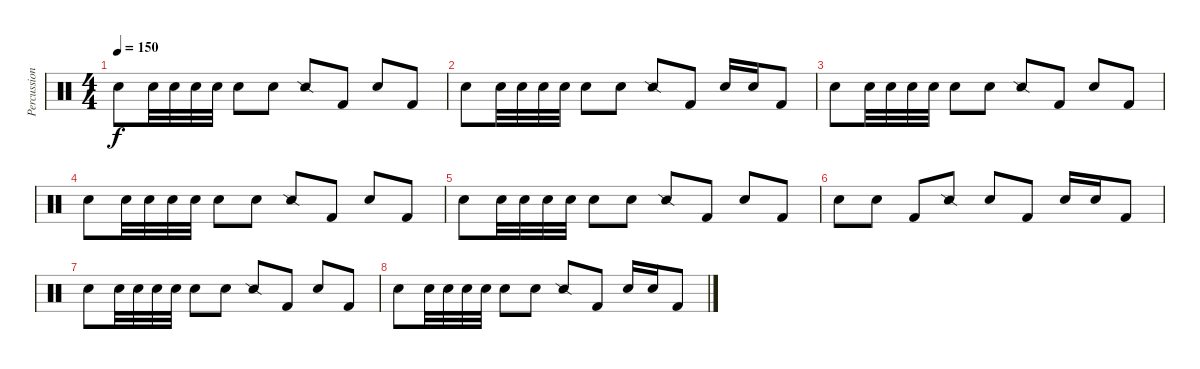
\track ("Percussion" "Percussion") {instrument percussion}
\staff {score}
\articulation defaults
\ts (4 4)
\tempo 150
\clef neutral
\ks c "Electric Snare (hit)".8{dy f} "Electric Snare (hit)".32 "Electric Snare (hit)".32 "Electric Snare (hit)".32 "Electric Snare (hit)".32 "Electric Snare (hit)".8 "Electric Snare (hit)".8 "Snare (side stick) 2".8 "Kick (hit) 2".8 "Electric Snare (hit)".8 "Kick (hit) 2".8
|
"Electric Snare (hit)".8 "Electric Snare (hit)".32 "Electric Snare (hit)".32 "Electric Snare (hit)".32 "Electric Snare (hit)".32 "Electric Snare (hit)".8 "Electric Snare (hit)".8 "Snare (side stick) 2".8 "Kick (hit) 2".8 "Electric Snare (hit)".16 "Electric Snare (hit)".16 "Kick (hit) 2".8 |
"Electric Snare (hit)".8 "Electric Snare (hit)".32 "Electric Snare (hit)".32 "Electric Snare (hit)".32 "Electric Snare (hit)".32 "Electric Snare (hit)".8 "Electric Snare (hit)".8 "Snare (side stick) 2".8 "Kick (hit) 2".8 "Electric Snare (hit)".8 "Kick (hit) 2".8 |
"Electric Snare (hit)".8 "Electric Snare (hit)".32 "Electric Snare (hit)".32 "Electric Snare (hit)".32 "Electric Snare (hit)".32 "Electric Snare (hit)".8 "Electric Snare (hit)".8 "Snare (side stick) 2".8 "Kick (hit) 2".8 "Electric Snare (hit)".8 "Kick (hit) 2".8 |
"Electric Snare (hit)".8 "Electric Snare (hit)".32 "Electric Snare (hit)".32 "Electric Snare (hit)".32 "Electric Snare (hit)".32 "Electric Snare (hit)".8 "Electric Snare (hit)".8 "Snare (side stick) 2".8 "Kick (hit) 2".8 "Electric Snare (hit)".8 "Kick (hit) 2".8 |
"Electric Snare (hit)".8 "Electric Snare (hit)".8 "Kick (hit) 2".8 "Snare (side stick) 2".8 "Electric Snare (hit)".8 "Kick (hit) 2".8 "Electric Snare (hit)".16 "Electric Snare (hit)".16 "Kick (hit) 2".8 |
"Electric Snare (hit)".8 "Electric Snare (hit)".32 "Electric Snare (hit)".32 "Electric Snare (hit)".32 "Electric Snare (hit)".32 "Electric Snare (hit)".8 "Electric Snare (hit)".8 "Snare (side stick) 2".8 "Kick (hit) 2".8 "Electric Snare (hit)".8 "Kick (hit) 2".8 |
"Electric Snare (hit)".8 "Electric Snare (hit)".32 "Electric Snare (hit)".32 "Electric Snare (hit)".32 "Electric Snare (hit)".32 "Electric Snare (hit)".8 "Electric Snare (hit)".8 "Snare (side stick) 2".8 "Kick (hit) 2".8 "Electric Snare (hit)".16 "Electric Snare (hit)".16 "Kick (hit) 2".8
